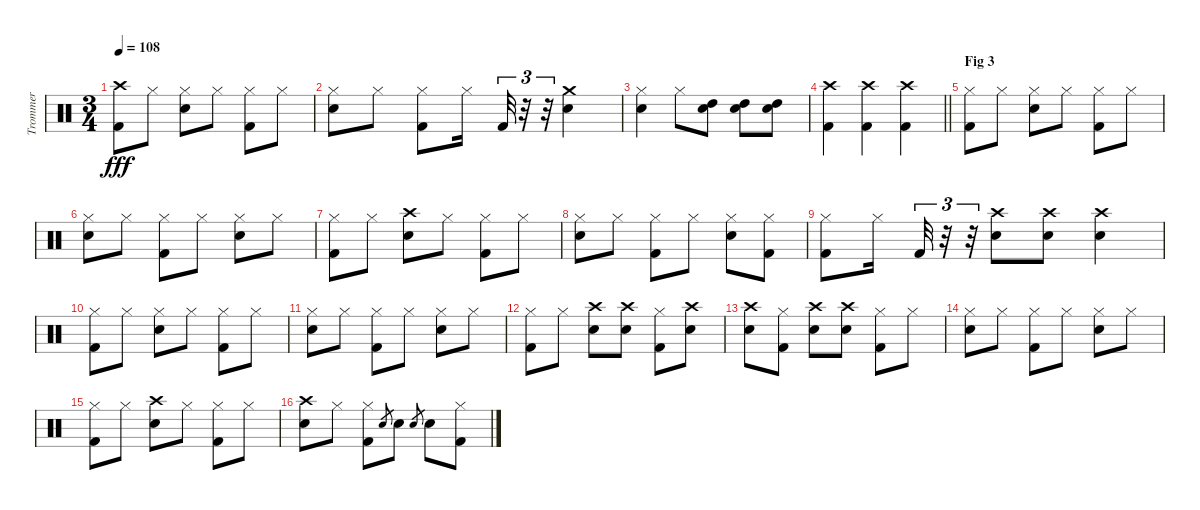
\track ("Trommer" "Trommer") {instrument percussion}
\staff {score}
\articulation defaults
\ts (3 4)
\tempo 108
\clef neutral
\ks c
("Crash high (hit)" "Kick (hit) 2").8{dy fff} "Hi-Hat (closed)".8 ("Hi-Hat (closed)" "Electric Snare (hit)").8 "Hi-Hat (closed)".8 ("Hi-Hat (closed)" "Kick (hit) 2").8 "Hi-Hat (closed)".8 |
("Hi-Hat (closed)" "Electric Snare (hit)").8 "Hi-Hat (closed)".8 ("Hi-Hat (closed)" "Kick (hit) 2").8 "Hi-Hat (closed)".16 "Kick (hit) 2".32{tu (3 2)} r.32{tu (3 2)} r.32{tu (3 2)} ("Crash medium (hit)" "Electric Snare (hit)").4 |
("Hi-Hat (closed)" "Electric Snare (hit)").4 "Hi-Hat (closed)".8 ("High Tom (hit)" "Electric Snare (hit)").8 ("High Tom (hit)" "Electric Snare (hit)").8 ("High Tom (hit)" "Electric Snare (hit)").8 |
\barLineRight lightlight
("Crash high (hit)" "Kick (hit) 2").4 ("Crash high (hit)" "Kick (hit) 2").4 ("Crash high (hit)" "Kick (hit) 2").4 |
\section ("" "Fig 3")
("Hi-Hat (closed)" "Kick (hit) 2").8 "Hi-Hat (closed)".8 ("Hi-Hat (closed)" "Electric Snare (hit)").8 "Hi-Hat (closed)".8 ("Hi-Hat (closed)" "Kick (hit) 2").8 "Hi-Hat (closed)".8 |
("Hi-Hat (closed)" "Electric Snare (hit)").8 "Hi-Hat (closed)".8 ("Hi-Hat (closed)" "Kick (hit) 2").8 "Hi-Hat (closed)".8 ("Hi-Hat (closed)" "Electric Snare (hit)").8 "Hi-Hat (closed)".8 |
("Hi-Hat (closed)" "Kick (hit) 2").8 "Hi-Hat (closed)".8 ("Crash high (hit)" "Electric Snare (hit)").8 "Hi-Hat (closed)".8 ("Hi-Hat (closed)" "Kick (hit) 2").8 "Hi-Hat (closed)".8 |
("Hi-Hat (closed)" "Electric Snare (hit)").8 "Hi-Hat (closed)".8 ("Hi-Hat (closed)" "Kick (hit) 2").8 "Hi-Hat (closed)".8 ("Hi-Hat (closed)" "Electric Snare (hit)").8 ("Hi-Hat (closed)" "Kick (hit) 2").8 |
("Hi-Hat (closed)" "Kick (hit) 2").8 "Hi-Hat (closed)".16 "Kick (hit) 2".32{tu (3 2)} r.32{tu (3 2)} r.32{tu (3 2)} ("Crash high (hit)" "Electric Snare (hit)").8 ("Crash high (hit)" "Electric Snare (hit)").8 ("Crash high (hit)" "Electric Snare (hit)").4 |
("Hi-Hat (closed)" "Kick (hit) 2").8 "Hi-Hat (closed)".8 ("Hi-Hat (closed)" "Electric Snare (hit)").8 "Hi-Hat (closed)".8 ("Hi-Hat (closed)" "Kick (hit) 2").8 "Hi-Hat (closed)".8 |
("Hi-Hat (closed)" "Electric Snare (hit)").8 "Hi-Hat (closed)".8 ("Hi-Hat (closed)" "Kick (hit) 2").8 "Hi-Hat (closed)".8 ("Hi-Hat (closed)" "Electric Snare (hit)").8 "Hi-Hat (closed)".8 |
("Hi-Hat (closed)" "Kick (hit) 2").8 "Hi-Hat (closed)".8 ("Crash high (hit)" "Electric Snare (hit)").8 ("Crash high (hit)" "Electric Snare (hit)").8 ("Hi-Hat (closed)" "Kick (hit) 2").8 ("Crash high (hit)" "Electric Snare (hit)").8 |
("Crash high (hit)" "Electric Snare (hit)").8 ("Hi-Hat (closed)" "Kick (hit) 2").8 ("Crash high (hit)" "Electric Snare (hit)").8 ("Crash high (hit)" "Electric Snare (hit)").8 ("Hi-Hat (closed)" "Kick (hit) 2").8 "Hi-Hat (closed)".8 |
("Hi-Hat (closed)" "Electric Snare (hit)").8 "Hi-Hat (closed)".8 ("Hi-Hat (closed)" "Kick (hit) 2").8 "Hi-Hat (closed)".8 ("Hi-Hat (closed)" "Electric Snare (hit)").8 "Hi-Hat (closed)".8 |
("Hi-Hat (closed)" "Kick (hit) 2").8 "Hi-Hat (closed)".8 ("Crash high (hit)" "Electric Snare (hit)").8 "Hi-Hat (closed)".8 ("Hi-Hat (closed)" "Kick (hit) 2").8 "Hi-Hat (closed)".8 |
("Crash high (hit)" "Electric Snare (hit)").8 "Hi-Hat (closed)".8 ("Hi-Hat (closed)" "Kick (hit) 2").8 "Snare (hit) 2".8{gr} "Electric Snare (hit)".8 "Snare (hit) 2".8{gr} "Electric Snare (hit)".8 ("Hi-Hat (closed)" "Kick (hit) 2").8
